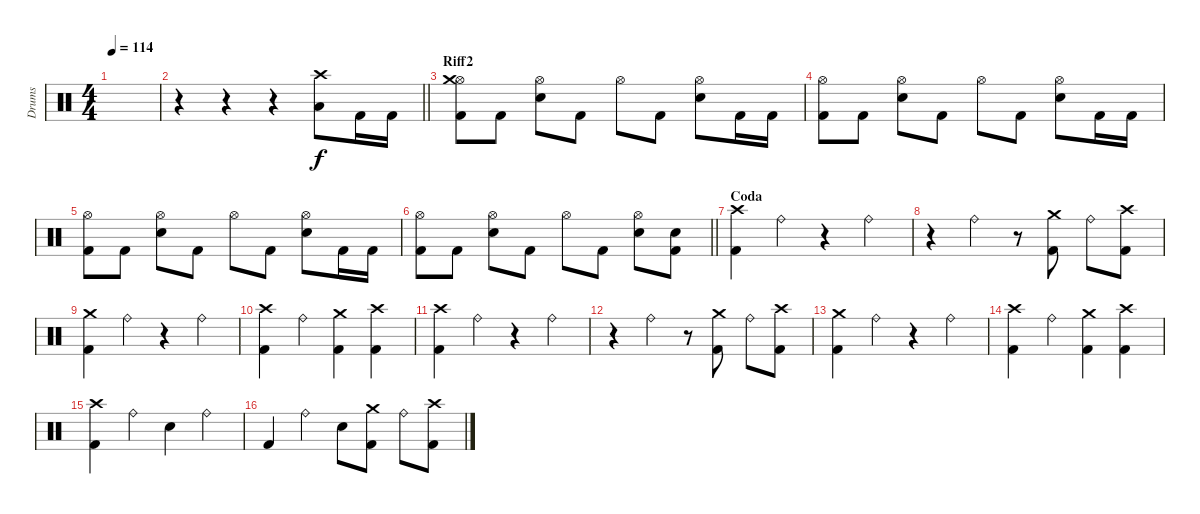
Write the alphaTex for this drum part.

\track ("Drums" "Drums") {instrument percussion}
\staff {score}
\articulation defaults
\ts (4 4)
\tempo 114
\clef neutral
\ks c
|
\barLineRight lightlight
r.4 r.4 r.4 ("Low Floor Tom (hit)" "Crash high (hit)").8 "Kick (hit) 2".16 "Kick (hit) 2".16 |
\section ("" "Riff2")
("Kick (hit) 2" "Hi-Hat (open)" "Crash medium (hit)").8 "Kick (hit) 2".8 ("Electric Snare (hit)" "Hi-Hat (open)").8 "Kick (hit) 2".8 "Hi-Hat (open)".8 "Kick (hit) 2".8 ("Electric Snare (hit)" "Hi-Hat (open)").8 "Kick (hit) 2".16 "Kick (hit) 2".16 |
("Kick (hit) 2" "Hi-Hat (open)").8 "Kick (hit) 2".8 ("Electric Snare (hit)" "Hi-Hat (open)").8 "Kick (hit) 2".8 "Hi-Hat (open)".8 "Kick (hit) 2".8 ("Electric Snare (hit)" "Hi-Hat (open)").8 "Kick (hit) 2".16 "Kick (hit) 2".16 |
("Kick (hit) 2" "Hi-Hat (open)").8 "Kick (hit) 2".8 ("Electric Snare (hit)" "Hi-Hat (open)").8 "Kick (hit) 2".8 "Hi-Hat (open)".8 "Kick (hit) 2".8 ("Electric Snare (hit)" "Hi-Hat (open)").8 "Kick (hit) 2".16 "Kick (hit) 2".16 |
\barLineRight lightlight
("Kick (hit) 2" "Hi-Hat (open)").8 "Kick (hit) 2".8 ("Electric Snare (hit)" "Hi-Hat (open)").8 "Kick (hit) 2".8 "Hi-Hat (open)".8 "Kick (hit) 2".8 ("Electric Snare (hit)" "Hi-Hat (open)").8 ("Kick (hit) 2" "Electric Snare (hit)").8 |
\section ("" "Coda")
("Kick (hit) 2" "Crash high (hit)").4 "Ride (bell)".4 r.4 "Ride (bell)".4 |
r.4 "Ride (bell)".4 r.8 ("Kick (hit) 2" "Crash medium (hit)").8 "Ride (bell)".8 ("Kick (hit) 2" "Crash high (hit)").8 |
("Kick (hit) 2" "Crash medium (hit)").4 "Ride (bell)".4 r.4 "Ride (bell)".4 |
("Kick (hit) 2" "Crash high (hit)").4 "Ride (bell)".4 ("Kick (hit) 2" "Crash medium (hit)").4 ("Kick (hit) 2" "Crash high (hit)").4 |
("Kick (hit) 2" "Crash high (hit)").4 "Ride (bell)".4 r.4 "Ride (bell)".4 |
r.4 "Ride (bell)".4 r.8 ("Kick (hit) 2" "Crash medium (hit)").8 "Ride (bell)".8 ("Kick (hit) 2" "Crash high (hit)").8 |
("Kick (hit) 2" "Crash medium (hit)").4 "Ride (bell)".4 r.4 "Ride (bell)".4 |
("Kick (hit) 2" "Crash high (hit)").4 "Ride (bell)".4 ("Kick (hit) 2" "Crash medium (hit)").4 ("Kick (hit) 2" "Crash high (hit)").4 |
("Kick (hit) 2" "Crash high (hit)").4 "Ride (bell)".4 "Electric Snare (hit)".4 "Ride (bell)".4 |
"Kick (hit) 2".4 "Ride (bell)".4 "Electric Snare (hit)".8 ("Kick (hit) 2" "Crash medium (hit)").8 "Ride (bell)".8 ("Kick (hit) 2" "Crash high (hit)").8
